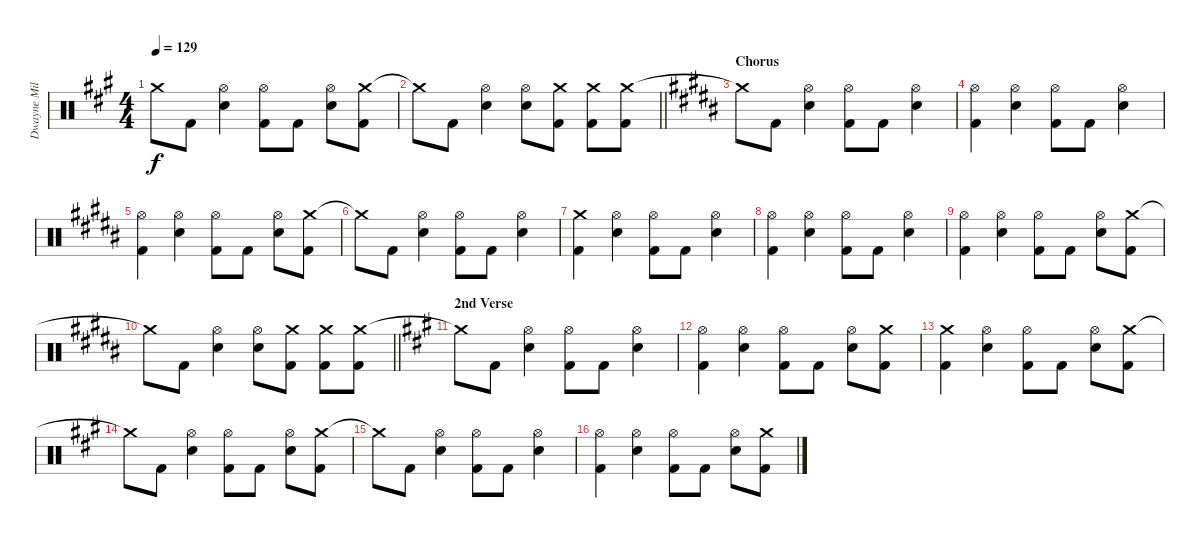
\track ("Dwayne Miller" "Dwayne Mil") {instrument percussion}
\staff {score}
\articulation defaults
\ts (4 4)
\tempo 129
\clef neutral
\ks a "Crash medium (hit)"{t}.8{dy f} "Kick (hit) 2".8
("Hi-Hat (open)" "Snare (hit) 2").4 ("Hi-Hat (open)" "Kick (hit) 2").8 "Kick (hit) 2".8 ("Hi-Hat (open)" "Snare (hit) 2").8 ("Crash medium (hit)" "Kick (hit) 2").8 |
\barLineRight lightlight "Crash medium (hit)"{t}.8 "Kick (hit) 2".8
("Hi-Hat (open)" "Snare (hit) 2").4 ("Hi-Hat (open)" "Snare (hit) 2").8 ("Crash medium (hit)" "Kick (hit) 2").8 ("Crash medium (hit)" "Kick (hit) 2").8 ("Crash medium (hit)" "Kick (hit) 2").8 |
\section ("" "Chorus")
\ks b "Crash medium (hit)"{t}.8 "Kick (hit) 2".8
("Hi-Hat (open)" "Snare (hit) 2").4 ("Hi-Hat (open)" "Kick (hit) 2").8 "Kick (hit) 2".8 ("Hi-Hat (open)" "Snare (hit) 2").4 |
("Hi-Hat (open)" "Kick (hit) 2").4 ("Hi-Hat (open)" "Snare (hit) 2").4 ("Hi-Hat (open)" "Kick (hit) 2").8 "Kick (hit) 2".8 ("Hi-Hat (open)" "Snare (hit) 2").4 |
("Hi-Hat (open)" "Kick (hit) 2").4 ("Hi-Hat (open)" "Snare (hit) 2").4 ("Hi-Hat (open)" "Kick (hit) 2").8 "Kick (hit) 2".8 ("Hi-Hat (open)" "Snare (hit) 2").8 ("Crash medium (hit)" "Kick (hit) 2").8 |
"Crash medium (hit)"{t}.8 "Kick (hit) 2".8 ("Hi-Hat (open)" "Snare (hit) 2").4 ("Hi-Hat (open)" "Kick (hit) 2").8 "Kick (hit) 2".8 ("Hi-Hat (open)" "Snare (hit) 2").4 |
("Crash medium (hit)" "Kick (hit) 2").4 ("Hi-Hat (open)" "Snare (hit) 2").4 ("Hi-Hat (open)" "Kick (hit) 2").8 "Kick (hit) 2".8 ("Hi-Hat (open)" "Snare (hit) 2").4 |
("Hi-Hat (open)" "Kick (hit) 2").4 ("Hi-Hat (open)" "Snare (hit) 2").4 ("Hi-Hat (open)" "Kick (hit) 2").8 "Kick (hit) 2".8 ("Hi-Hat (open)" "Snare (hit) 2").4 |
("Hi-Hat (open)" "Kick (hit) 2").4 ("Hi-Hat (open)" "Snare (hit) 2").4 ("Hi-Hat (open)" "Kick (hit) 2").8 "Kick (hit) 2".8 ("Hi-Hat (open)" "Snare (hit) 2").8 ("Crash medium (hit)" "Kick (hit) 2").8 |
\barLineRight lightlight "Crash medium (hit)"{t}.8 "Kick (hit) 2".8
("Hi-Hat (open)" "Snare (hit) 2").4 ("Hi-Hat (open)" "Snare (hit) 2").8 ("Crash medium (hit)" "Kick (hit) 2").8 ("Crash medium (hit)" "Kick (hit) 2").8 ("Crash medium (hit)" "Kick (hit) 2").8 |
\section ("" "2nd Verse")
\ks a "Crash medium (hit)"{t}.8 "Kick (hit) 2".8
("Hi-Hat (open)" "Snare (hit) 2").4 ("Hi-Hat (open)" "Kick (hit) 2").8 "Kick (hit) 2".8 ("Hi-Hat (open)" "Snare (hit) 2").4 |
("Hi-Hat (open)" "Kick (hit) 2").4 ("Hi-Hat (open)" "Snare (hit) 2").4 ("Hi-Hat (open)" "Kick (hit) 2").8 "Kick (hit) 2".8 ("Hi-Hat (open)" "Snare (hit) 2").8 ("Crash medium (hit)" "Kick (hit) 2").8 |
("Crash medium (hit)" "Kick (hit) 2").4 ("Hi-Hat (open)" "Snare (hit) 2").4 ("Hi-Hat (open)" "Kick (hit) 2").8 "Kick (hit) 2".8 ("Hi-Hat (open)" "Snare (hit) 2").8 ("Crash medium (hit)" "Kick (hit) 2").8 |
"Crash medium (hit)"{t}.8 "Kick (hit) 2".8 ("Hi-Hat (open)" "Snare (hit) 2").4 ("Hi-Hat (open)" "Kick (hit) 2").8 "Kick (hit) 2".8 ("Hi-Hat (open)" "Snare (hit) 2").8 ("Crash medium (hit)" "Kick (hit) 2").8 |
"Crash medium (hit)"{t}.8 "Kick (hit) 2".8 ("Hi-Hat (open)" "Snare (hit) 2").4 ("Hi-Hat (open)" "Kick (hit) 2").8 "Kick (hit) 2".8 ("Hi-Hat (open)" "Snare (hit) 2").4 |
("Hi-Hat (open)" "Kick (hit) 2").4 ("Hi-Hat (open)" "Snare (hit) 2").4 ("Hi-Hat (open)" "Kick (hit) 2").8 "Kick (hit) 2".8 ("Hi-Hat (open)" "Snare (hit) 2").8 ("Crash medium (hit)" "Kick (hit) 2").8
